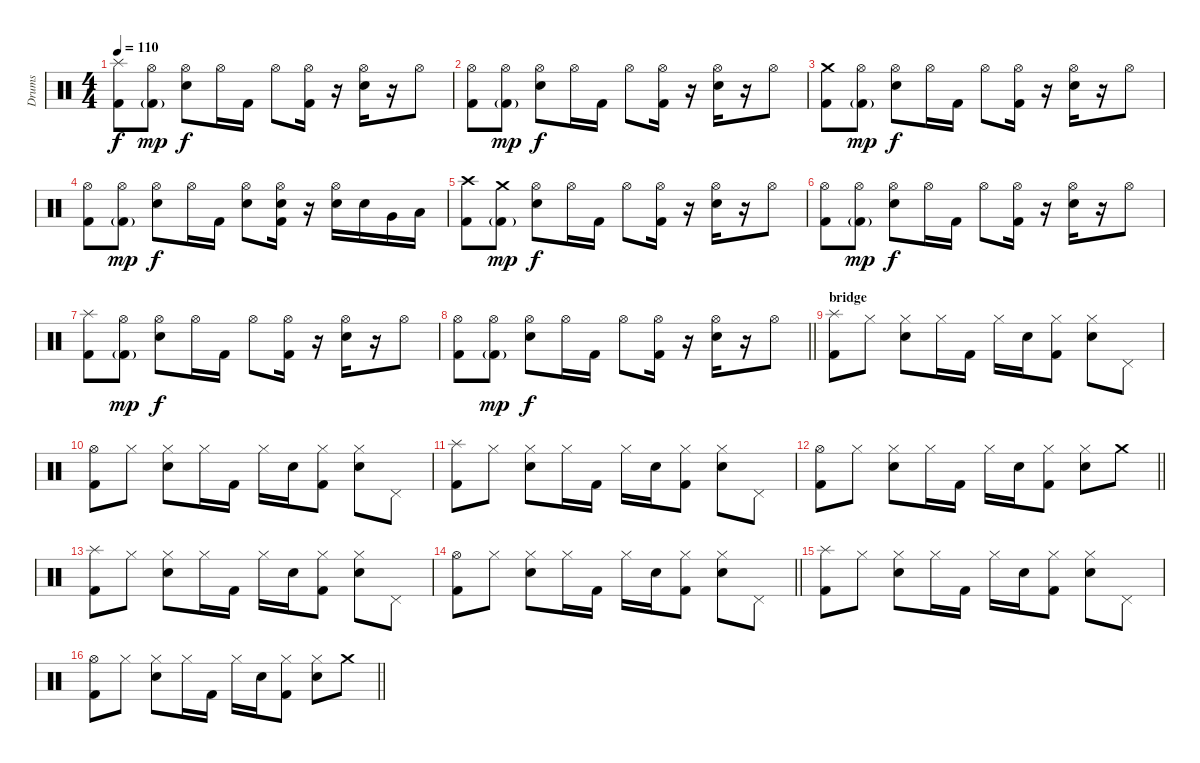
\track ("Drums" "Drums") {instrument percussion}
\staff {score}
\articulation defaults
\ts (4 4)
\tempo 110
\clef neutral
\ks c
("Splash (hit)" "Kick (hit) 2").8{dy f} ("Hi-Hat (open)" "Kick (hit) 2"{g}).8{dy mp} ("Hi-Hat (open)" "Electric Snare (hit)").8{dy f} "Hi-Hat (open)".16 "Kick (hit) 2".16 "Hi-Hat (open)".8 ("Hi-Hat (open)" "Kick (hit) 2").16 r.16 ("Hi-Hat (open)" "Electric Snare (hit)").16 r.16 "Hi-Hat (open)".8 |
("Hi-Hat (open)" "Kick (hit) 2").8 ("Hi-Hat (open)" "Kick (hit) 2"{g}).8{dy mp} ("Hi-Hat (open)" "Electric Snare (hit)").8{dy f} "Hi-Hat (open)".16 "Kick (hit) 2".16 "Hi-Hat (open)".8 ("Hi-Hat (open)" "Kick (hit) 2").16 r.16 ("Hi-Hat (open)" "Electric Snare (hit)").16 r.16 "Hi-Hat (open)".8 |
("Crash medium (hit)" "Kick (hit) 2").8 ("Hi-Hat (open)" "Kick (hit) 2"{g}).8{dy mp} ("Hi-Hat (open)" "Electric Snare (hit)").8{dy f} "Hi-Hat (open)".16 "Kick (hit) 2".16 "Hi-Hat (open)".8 ("Hi-Hat (open)" "Kick (hit) 2").16 r.16 ("Hi-Hat (open)" "Electric Snare (hit)").16 r.16 "Hi-Hat (open)".8 |
("Hi-Hat (open)" "Kick (hit) 2").8 ("Hi-Hat (open)" "Kick (hit) 2"{g}).8{dy mp} ("Hi-Hat (open)" "Electric Snare (hit)").8{dy f} "Hi-Hat (open)".16 "Kick (hit) 2".16 ("Hi-Hat (open)" "Electric Snare (hit)").8 ("Hi-Hat (open)" "Electric Snare (hit)" "Kick (hit) 2").16 r.16 ("Hi-Hat (open)" "Electric Snare (hit)").16 "Electric Snare (hit)".16 "Very Low Tom (hit)".16 "Low Tom (hit)".16 |
("Crash high (hit)" "Kick (hit) 2").8 ("Crash medium (hit)" "Kick (hit) 2"{g}).8{dy mp} ("Hi-Hat (open)" "Electric Snare (hit)").8{dy f} "Hi-Hat (open)".16 "Kick (hit) 2".16 "Hi-Hat (open)".8 ("Hi-Hat (open)" "Kick (hit) 2").16 r.16 ("Hi-Hat (open)" "Electric Snare (hit)").16 r.16 "Hi-Hat (open)".8 |
("Hi-Hat (open)" "Kick (hit) 2").8 ("Hi-Hat (open)" "Kick (hit) 2"{g}).8{dy mp} ("Hi-Hat (open)" "Electric Snare (hit)").8{dy f} "Hi-Hat (open)".16 "Kick (hit) 2".16 "Hi-Hat (open)".8 ("Hi-Hat (open)" "Kick (hit) 2").16 r.16 ("Hi-Hat (open)" "Electric Snare (hit)").16 r.16 "Hi-Hat (open)".8 |
("Splash (hit)" "Kick (hit) 2").8 ("Hi-Hat (open)" "Kick (hit) 2"{g}).8{dy mp} ("Hi-Hat (open)" "Electric Snare (hit)").8{dy f} "Hi-Hat (open)".16 "Kick (hit) 2".16 "Hi-Hat (open)".8 ("Hi-Hat (open)" "Kick (hit) 2").16 r.16 ("Hi-Hat (open)" "Electric Snare (hit)").16 r.16 "Hi-Hat (open)".8 |
\barLineRight lightlight
("Hi-Hat (open)" "Kick (hit) 2").8 ("Hi-Hat (open)" "Kick (hit) 2"{g}).8{dy mp} ("Hi-Hat (open)" "Electric Snare (hit)").8{dy f} "Hi-Hat (open)".16 "Kick (hit) 2".16 "Hi-Hat (open)".8 ("Hi-Hat (open)" "Kick (hit) 2").16 r.16 ("Hi-Hat (open)" "Electric Snare (hit)").16 r.16 "Hi-Hat (open)".8 |
\section ("" "bridge")
("Splash (hit)" "Kick (hit) 2").8 "Hi-Hat (closed)".8 ("Hi-Hat (closed)" "Snare (hit) 2").8 "Hi-Hat (closed)".16 "Kick (hit) 2".16 "Hi-Hat (closed)".16 "Snare (hit) 2".16 ("Hi-Hat (closed)" "Kick (hit) 2").8 ("Hi-Hat (closed)" "Snare (hit) 2").8 "Pedal Hi-Hat (hit)".8 |
("Hi-Hat (open)" "Kick (hit) 2").8 "Hi-Hat (closed)".8 ("Hi-Hat (closed)" "Snare (hit) 2").8 "Hi-Hat (closed)".16 "Kick (hit) 2".16 "Hi-Hat (closed)".16 "Snare (hit) 2".16 ("Hi-Hat (closed)" "Kick (hit) 2").8 ("Hi-Hat (closed)" "Snare (hit) 2").8 "Pedal Hi-Hat (hit)".8 |
("Splash (hit)" "Kick (hit) 2").8 "Hi-Hat (closed)".8 ("Hi-Hat (closed)" "Snare (hit) 2").8 "Hi-Hat (closed)".16 "Kick (hit) 2".16 "Hi-Hat (closed)".16 "Snare (hit) 2".16 ("Hi-Hat (closed)" "Kick (hit) 2").8 ("Hi-Hat (closed)" "Snare (hit) 2").8 "Pedal Hi-Hat (hit)".8 |
\barLineRight lightlight
("Hi-Hat (open)" "Kick (hit) 2").8 "Hi-Hat (closed)".8 ("Hi-Hat (closed)" "Snare (hit) 2").8 "Hi-Hat (closed)".16 "Kick (hit) 2".16 "Hi-Hat (closed)".16 "Snare (hit) 2".16 ("Hi-Hat (closed)" "Kick (hit) 2").8 ("Hi-Hat (closed)" "Snare (hit) 2").8 "Crash medium (hit)".8 |
("Splash (hit)" "Kick (hit) 2").8 "Hi-Hat (closed)".8 ("Hi-Hat (closed)" "Snare (hit) 2").8 "Hi-Hat (closed)".16 "Kick (hit) 2".16 "Hi-Hat (closed)".16 "Snare (hit) 2".16 ("Hi-Hat (closed)" "Kick (hit) 2").8 ("Hi-Hat (closed)" "Snare (hit) 2").8 "Pedal Hi-Hat (hit)".8 |
\barLineRight lightlight
("Hi-Hat (open)" "Kick (hit) 2").8 "Hi-Hat (closed)".8 ("Hi-Hat (closed)" "Snare (hit) 2").8 "Hi-Hat (closed)".16 "Kick (hit) 2".16 "Hi-Hat (closed)".16 "Snare (hit) 2".16 ("Hi-Hat (closed)" "Kick (hit) 2").8 ("Hi-Hat (closed)" "Snare (hit) 2").8 "Pedal Hi-Hat (hit)".8 |
("Splash (hit)" "Kick (hit) 2").8 "Hi-Hat (closed)".8 ("Hi-Hat (closed)" "Snare (hit) 2").8 "Hi-Hat (closed)".16 "Kick (hit) 2".16 "Hi-Hat (closed)".16 "Snare (hit) 2".16 ("Hi-Hat (closed)" "Kick (hit) 2").8 ("Hi-Hat (closed)" "Snare (hit) 2").8 "Pedal Hi-Hat (hit)".8 |
\barLineRight lightlight
("Hi-Hat (open)" "Kick (hit) 2").8 "Hi-Hat (closed)".8 ("Hi-Hat (closed)" "Snare (hit) 2").8 "Hi-Hat (closed)".16 "Kick (hit) 2".16 "Hi-Hat (closed)".16 "Snare (hit) 2".16 ("Hi-Hat (closed)" "Kick (hit) 2").8 ("Hi-Hat (closed)" "Snare (hit) 2").8 "Crash medium (hit)".8
